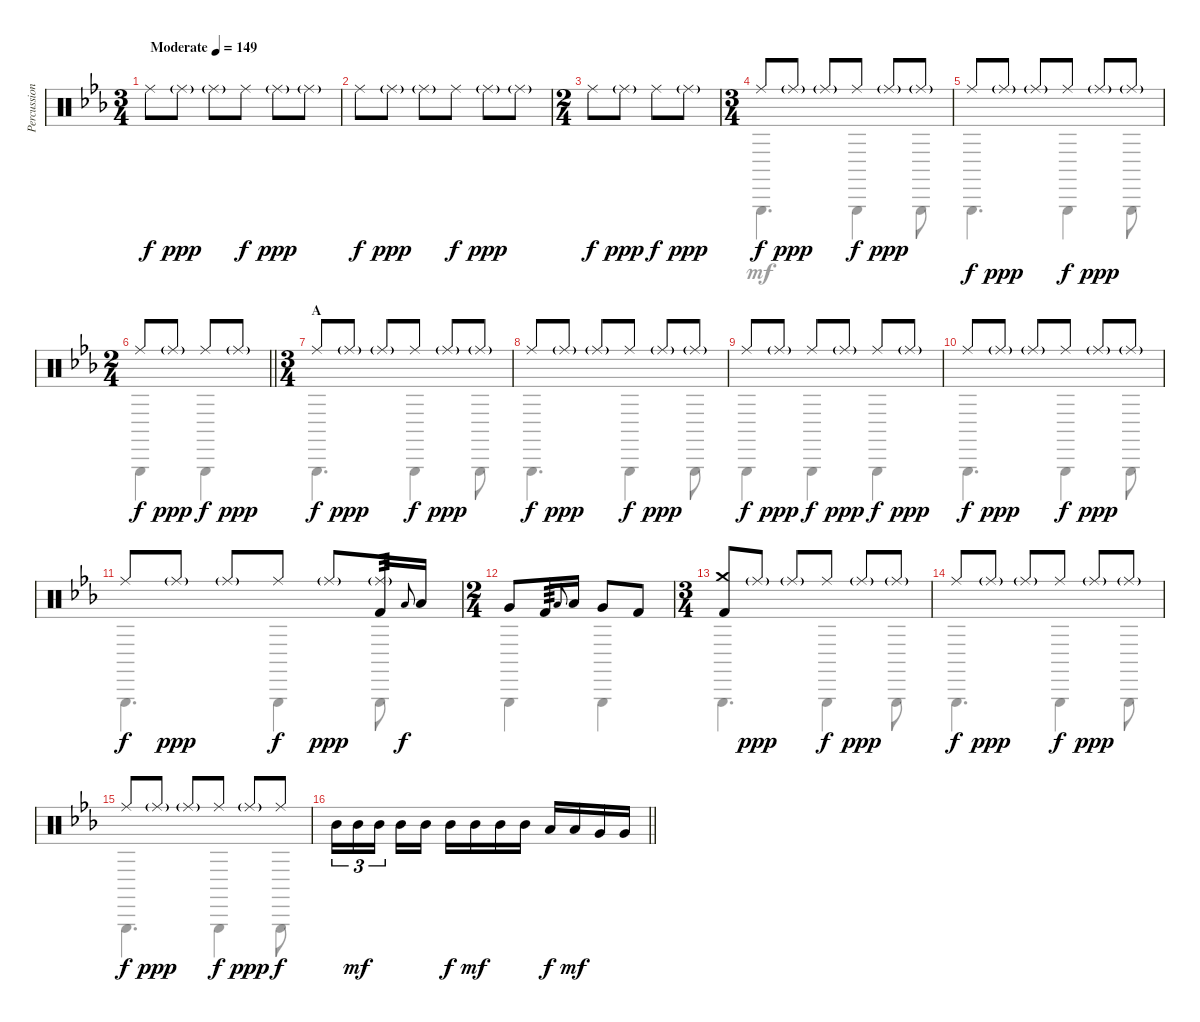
\track ("Percussion" "Percussion") {instrument percussion}
\staff {score}
\articulation defaults
\voice
\ts (3 4)
\tempo (149 "Moderate")
\clef neutral
\ks cminor "Ride (middle)".8{dy f} "Ride (middle)"{g}.8{dy ppp} "Ride (middle)"{g}.8 "Ride (middle)".8{dy f} "Ride (middle)"{g}.8{dy ppp} "Ride (middle)"{g}.8
|
"Ride (middle)".8{dy f} "Ride (middle)"{g}.8{dy ppp} "Ride (middle)"{g}.8 "Ride (middle)".8{dy f} "Ride (middle)"{g}.8{dy ppp} "Ride (middle)"{g}.8 |
\ts (2 4)
"Ride (middle)".8{dy f} "Ride (middle)"{g}.8{dy ppp} "Ride (middle)".8{dy f} "Ride (middle)"{g}.8{dy ppp} |
\ts (3 4)
"Ride (middle)".8{dy f} "Ride (middle)"{g}.8{dy ppp} "Ride (middle)"{g}.8 "Ride (middle)".8{dy f} "Ride (middle)"{g}.8{dy ppp} "Ride (middle)"{g}.8 |
"Ride (middle)".8{dy f} "Ride (middle)"{g}.8{dy ppp} "Ride (middle)"{g}.8 "Ride (middle)".8{dy f} "Ride (middle)"{g}.8{dy ppp} "Ride (middle)"{g}.8 |
\ts (2 4)
\barLineRight lightlight "Ride (middle)".8{dy f} "Ride (middle)"{g}.8{dy ppp} "Ride (middle)".8{dy f} "Ride (middle)"{g}.8{dy ppp}
|
\ts (3 4)
\section ("" "A")
"Ride (middle)".8{dy f} "Ride (middle)"{g}.8{dy ppp} "Ride (middle)"{g}.8 "Ride (middle)".8{dy f} "Ride (middle)"{g}.8{dy ppp} "Ride (middle)"{g}.8 |
"Ride (middle)".8{dy f} "Ride (middle)"{g}.8{dy ppp} "Ride (middle)"{g}.8 "Ride (middle)".8{dy f} "Ride (middle)"{g}.8{dy ppp} "Ride (middle)"{g}.8 |
"Ride (middle)".8{dy f} "Ride (middle)"{g}.8{dy ppp} "Ride (middle)".8{dy f} "Ride (middle)"{g}.8{dy ppp} "Ride (middle)".8{dy f} "Ride (middle)"{g}.8{dy ppp} |
"Ride (middle)".8{dy f} "Ride (middle)"{g}.8{dy ppp} "Ride (middle)"{g}.8 "Ride (middle)".8{dy f} "Ride (middle)"{g}.8{dy ppp} "Ride (middle)"{g}.8 |
"Ride (middle)".8{dy f} "Ride (middle)"{g}.8{dy ppp} "Ride (middle)"{g}.8 "Ride (middle)".8{dy f} "Ride (middle)"{g}.8{dy ppp} ("Ride (middle)"{g} "Kick (hit) 2").16{tp 3} "Low Tom (hit)".8{gr onbeat dy f} "Low Tom (hit)".16 |
\ts (2 4)
"Very Low Tom (hit)".8 "Kick (hit) 2".16{tp 3} "Low Tom (hit)".8{gr onbeat} "Low Tom (hit)".16 "Very Low Tom (hit)".8 "Kick (hit) 2".8 |
\ts (3 4)
("Crash medium (hit)" "Kick (hit) 2").8 "Ride (middle)"{g}.8{dy ppp} "Ride (middle)"{g}.8 "Ride (middle)".8{dy f} "Ride (middle)"{g}.8{dy ppp} "Ride (middle)"{g}.8 |
"Ride (middle)".8{dy f} "Ride (middle)"{g}.8{dy ppp} "Ride (middle)"{g}.8 "Ride (middle)".8{dy f} "Ride (middle)"{g}.8{dy ppp} "Ride (middle)"{g}.8 |
"Ride (middle)".8{dy f} "Ride (middle)"{g}.8{dy ppp} "Ride (middle)"{g}.8 "Ride (middle)".8{dy f} "Ride (middle)"{g}.8{dy ppp} "Ride (middle)".8{dy f} |
\barLineRight lightlight "Mid Tom (hit)".16{tu (3 2)} "Mid Tom (hit)".16{tu (3 2) dy mf} "Mid Tom (hit)".16{tu (3 2) beam splitsecondary} "Mid Tom (hit)".16 "Mid Tom (hit)".16 "Mid Tom (hit)".16{dy f} "Mid Tom (hit)".16{dy mf} "Mid Tom (hit)".16 "Mid Tom (hit)".16 "Low Tom (hit)".16{dy f} "Low Tom (hit)".16{dy mf} "Very Low Tom (hit)".16 "Very Low Tom (hit)".16
\voice
\clef neutral
\ottava regular
\simile none
\ks cminor
|
|
|
"Triangle (hit)".4{d} "Triangle (hit)".4 "Triangle (hit)".8 |
"Triangle (hit)".4{d} "Triangle (hit)".4 "Triangle (hit)".8 |
\barLineRight lightlight "Triangle (hit)".4 "Triangle (hit)".4
|
"Triangle (hit)".4{d} "Triangle (hit)".4 "Triangle (hit)".8 |
"Triangle (hit)".4{d} "Triangle (hit)".4 "Triangle (hit)".8 |
"Triangle (hit)".4 "Triangle (hit)".4 "Triangle (hit)".4 |
"Triangle (hit)".4{d} "Triangle (hit)".4 "Triangle (hit)".8 |
"Triangle (hit)".4{d} "Triangle (hit)".4 "Triangle (hit)".8 |
"Triangle (hit)".4 "Triangle (hit)".4 |
"Triangle (hit)".4{d} "Triangle (hit)".4 "Triangle (hit)".8 |
"Triangle (hit)".4{d} "Triangle (hit)".4 "Triangle (hit)".8 |
"Triangle (hit)".4{d} "Triangle (hit)".4 "Triangle (hit)".8 |
\barLineRight lightlight
